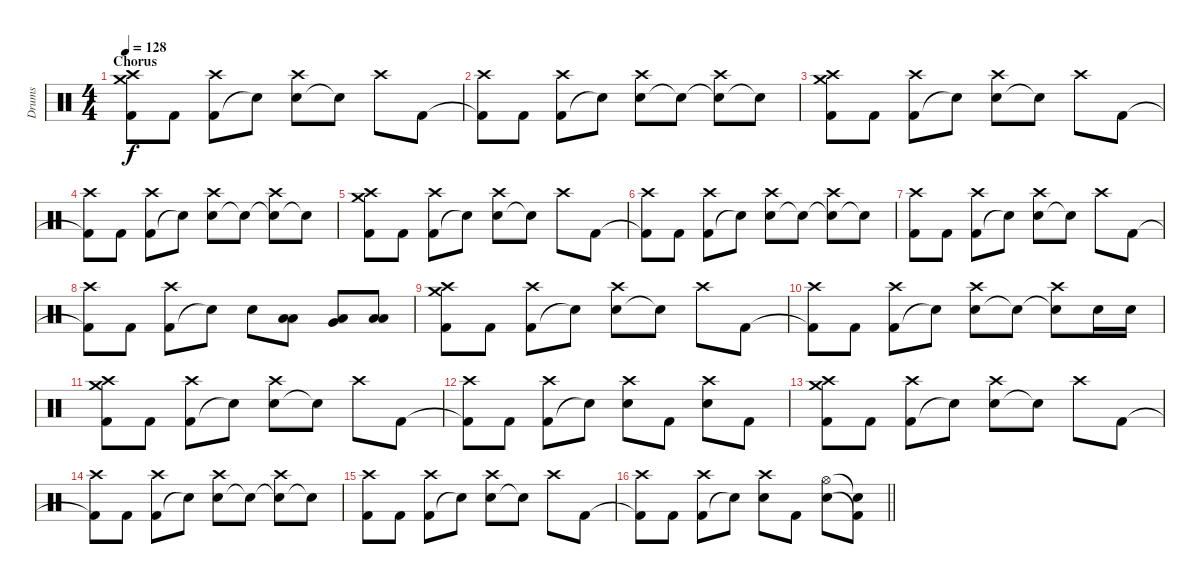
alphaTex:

\track ("Drums" "Drums") {instrument percussion}
\staff {score}
\articulation defaults
\ts (4 4)
\section ("" "Chorus")
\tempo 128
\clef neutral
\ks c
("Kick (hit) 2" "Crash medium (hit)" "Crash high (hit)").8{dy f} "Kick (hit) 2".8 ("Kick (hit) 2" "Crash high (hit)").8 "Electric Snare (hit)"{t}.8 ("Electric Snare (hit)" "Crash high (hit)").8 "Snare (hit)"{t}.8 "Crash high (hit)".8 "Kick (hit) 2".8 |
("Kick (hit) 2"{t} "Crash high (hit)").8 "Kick (hit) 2".8 ("Kick (hit) 2" "Crash high (hit)").8 "Electric Snare (hit)"{t}.8 ("Electric Snare (hit)" "Crash high (hit)").8 "Snare (hit)"{t}.8 ("Snare (hit)"{t} "Crash high (hit)").8 "Snare (hit)"{t}.8 |
("Kick (hit) 2" "Crash medium (hit)" "Crash high (hit)").8 "Kick (hit) 2".8 ("Kick (hit) 2" "Crash high (hit)").8 "Electric Snare (hit)"{t}.8 ("Electric Snare (hit)" "Crash high (hit)").8 "Snare (hit)"{t}.8 "Crash high (hit)".8 "Kick (hit) 2".8 |
("Kick (hit) 2"{t} "Crash high (hit)").8 "Kick (hit) 2".8 ("Kick (hit) 2" "Crash high (hit)").8 "Electric Snare (hit)"{t}.8 ("Electric Snare (hit)" "Crash high (hit)").8 "Snare (hit)"{t}.8 ("Snare (hit)"{t} "Crash high (hit)").8 "Snare (hit)"{t}.8 |
("Kick (hit) 2" "Crash medium (hit)" "Crash high (hit)").8 "Kick (hit) 2".8 ("Kick (hit) 2" "Crash high (hit)").8 "Electric Snare (hit)"{t}.8 ("Electric Snare (hit)" "Crash high (hit)").8 "Snare (hit)"{t}.8 "Crash high (hit)".8 "Kick (hit) 2".8 |
("Kick (hit) 2"{t} "Crash high (hit)").8 "Kick (hit) 2".8 ("Kick (hit) 2" "Crash high (hit)").8 "Electric Snare (hit)"{t}.8 ("Electric Snare (hit)" "Crash high (hit)").8 "Snare (hit)"{t}.8 ("Snare (hit)"{t} "Crash high (hit)").8 "Snare (hit)"{t}.8 |
("Kick (hit) 2" "Crash high (hit)").8 "Kick (hit) 2".8 ("Kick (hit) 2" "Crash high (hit)").8 "Electric Snare (hit)"{t}.8 ("Electric Snare (hit)" "Crash high (hit)").8 "Snare (hit)"{t}.8 "Crash high (hit)".8 "Kick (hit) 2".8 |
("Kick (hit) 2"{t} "Crash high (hit)").8 "Kick (hit) 2".8 ("Kick (hit) 2" "Crash high (hit)").8 "Electric Snare (hit)"{t}.8 "Electric Snare (hit)".8 ("Low Tom (hit)" "Low Floor Tom (hit)").8 ("Very Low Tom (hit)" "Low Floor Tom (hit)").8 ("Low Floor Tom (hit)" "Low Floor Tom (hit)").8 |
("Kick (hit) 2" "Crash medium (hit)" "Crash high (hit)").8 "Kick (hit) 2".8 ("Kick (hit) 2" "Crash high (hit)").8 "Electric Snare (hit)"{t}.8 ("Electric Snare (hit)" "Crash high (hit)").8 "Snare (hit)"{t}.8 "Crash high (hit)".8 "Kick (hit) 2".8 |
("Kick (hit) 2"{t} "Crash high (hit)").8 "Kick (hit) 2".8 ("Kick (hit) 2" "Crash high (hit)").8 "Electric Snare (hit)"{t}.8 ("Electric Snare (hit)" "Crash high (hit)").8 "Snare (hit)"{t}.8 ("Snare (hit)"{t} "Crash high (hit)").8 "Electric Snare (hit)".16 "Electric Snare (hit)".16 |
("Kick (hit) 2" "Crash medium (hit)" "Crash high (hit)").8 "Kick (hit) 2".8 ("Kick (hit) 2" "Crash high (hit)").8 "Electric Snare (hit)"{t}.8 ("Electric Snare (hit)" "Crash high (hit)").8 "Snare (hit)"{t}.8 "Crash high (hit)".8 "Kick (hit) 2".8 |
("Kick (hit) 2"{t} "Crash high (hit)").8 "Kick (hit) 2".8 ("Kick (hit) 2" "Crash high (hit)").8 "Electric Snare (hit)"{t}.8 ("Electric Snare (hit)" "Crash high (hit)").8 "Kick (hit) 2".8 ("Electric Snare (hit)" "Crash high (hit)").8 "Kick (hit) 2".8 |
("Kick (hit) 2" "Crash medium (hit)" "Crash high (hit)").8 "Kick (hit) 2".8 ("Kick (hit) 2" "Crash high (hit)").8 "Electric Snare (hit)"{t}.8 ("Electric Snare (hit)" "Crash high (hit)").8 "Snare (hit)"{t}.8 "Crash high (hit)".8 "Kick (hit) 2".8 |
("Kick (hit) 2"{t} "Crash high (hit)").8 "Kick (hit) 2".8 ("Kick (hit) 2" "Crash high (hit)").8 "Electric Snare (hit)"{t}.8 ("Electric Snare (hit)" "Crash high (hit)").8 "Snare (hit)"{t}.8 ("Snare (hit)"{t} "Crash high (hit)").8 "Snare (hit)"{t}.8 |
("Kick (hit) 2" "Crash high (hit)").8 "Kick (hit) 2".8 ("Kick (hit) 2" "Crash high (hit)").8 "Electric Snare (hit)"{t}.8 ("Electric Snare (hit)" "Crash high (hit)").8 "Snare (hit)"{t}.8 "Crash high (hit)".8 "Kick (hit) 2".8 |
\barLineRight lightlight
("Kick (hit) 2"{t} "Crash high (hit)").8 "Kick (hit) 2".8 ("Kick (hit) 2" "Crash high (hit)").8 "Electric Snare (hit)"{t}.8 ("Electric Snare (hit)" "Crash high (hit)").8 "Kick (hit) 2".8 ("Electric Snare (hit)" "Hi-Hat (open)").8 ("Kick (hit) 2"{t} "Snare (hit)"{t}).8
